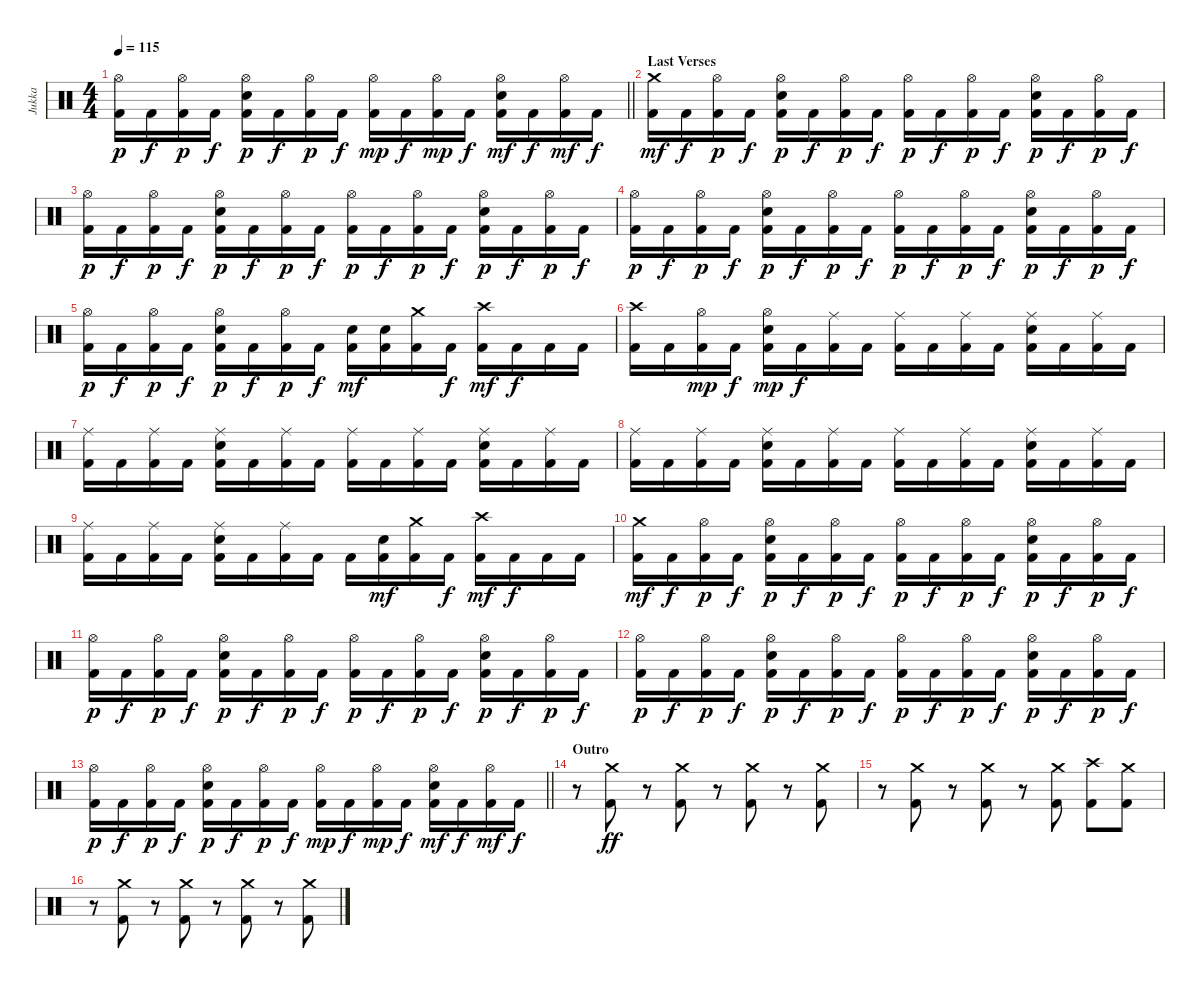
\track ("Jukka" "Jukka") {instrument percussion}
\staff {score}
\articulation defaults
\ts (4 4)
\tempo 115
\clef neutral
\barLineRight lightlight
\ks c
("Hi-Hat (open)" "Kick (hit) 2").16{dy p} "Kick (hit) 2".16{dy f} ("Hi-Hat (open)" "Kick (hit) 2").16{dy p} "Kick (hit) 2".16{dy f} ("Hi-Hat (open)" "Snare (hit) 2" "Kick (hit) 2").16{dy p} "Kick (hit) 2".16{dy f} ("Hi-Hat (open)" "Kick (hit) 2").16{dy p} "Kick (hit) 2".16{dy f} ("Hi-Hat (open)" "Kick (hit) 2").16{dy mp} "Kick (hit) 2".16{dy f} ("Hi-Hat (open)" "Kick (hit) 2").16{dy mp} "Kick (hit) 2".16{dy f} ("Hi-Hat (open)" "Snare (hit) 2" "Kick (hit) 2").16{dy mf} "Kick (hit) 2".16{dy f} ("Hi-Hat (open)" "Kick (hit) 2").16{dy mf} "Kick (hit) 2".16{dy f} |
\section ("" "Last Verses")
("Crash medium (hit)" "Kick (hit) 2").16{dy mf} "Kick (hit) 2".16{dy f} ("Hi-Hat (open)" "Kick (hit) 2").16{dy p} "Kick (hit) 2".16{dy f} ("Hi-Hat (open)" "Snare (hit) 2" "Kick (hit) 2").16{dy p} "Kick (hit) 2".16{dy f} ("Hi-Hat (open)" "Kick (hit) 2").16{dy p} "Kick (hit) 2".16{dy f} ("Hi-Hat (open)" "Kick (hit) 2").16{dy p} "Kick (hit) 2".16{dy f} ("Hi-Hat (open)" "Kick (hit) 2").16{dy p} "Kick (hit) 2".16{dy f} ("Hi-Hat (open)" "Snare (hit) 2" "Kick (hit) 2").16{dy p} "Kick (hit) 2".16{dy f} ("Hi-Hat (open)" "Kick (hit) 2").16{dy p} "Kick (hit) 2".16{dy f} |
("Hi-Hat (open)" "Kick (hit) 2").16{dy p} "Kick (hit) 2".16{dy f} ("Hi-Hat (open)" "Kick (hit) 2").16{dy p} "Kick (hit) 2".16{dy f} ("Hi-Hat (open)" "Snare (hit) 2" "Kick (hit) 2").16{dy p} "Kick (hit) 2".16{dy f} ("Hi-Hat (open)" "Kick (hit) 2").16{dy p} "Kick (hit) 2".16{dy f} ("Hi-Hat (open)" "Kick (hit) 2").16{dy p} "Kick (hit) 2".16{dy f} ("Hi-Hat (open)" "Kick (hit) 2").16{dy p} "Kick (hit) 2".16{dy f} ("Hi-Hat (open)" "Snare (hit) 2" "Kick (hit) 2").16{dy p} "Kick (hit) 2".16{dy f} ("Hi-Hat (open)" "Kick (hit) 2").16{dy p} "Kick (hit) 2".16{dy f} |
("Hi-Hat (open)" "Kick (hit) 2").16{dy p} "Kick (hit) 2".16{dy f} ("Hi-Hat (open)" "Kick (hit) 2").16{dy p} "Kick (hit) 2".16{dy f} ("Hi-Hat (open)" "Snare (hit) 2" "Kick (hit) 2").16{dy p} "Kick (hit) 2".16{dy f} ("Hi-Hat (open)" "Kick (hit) 2").16{dy p} "Kick (hit) 2".16{dy f} ("Hi-Hat (open)" "Kick (hit) 2").16{dy p} "Kick (hit) 2".16{dy f} ("Hi-Hat (open)" "Kick (hit) 2").16{dy p} "Kick (hit) 2".16{dy f} ("Hi-Hat (open)" "Snare (hit) 2" "Kick (hit) 2").16{dy p} "Kick (hit) 2".16{dy f} ("Hi-Hat (open)" "Kick (hit) 2").16{dy p} "Kick (hit) 2".16{dy f} |
("Hi-Hat (open)" "Kick (hit) 2").16{dy p} "Kick (hit) 2".16{dy f} ("Hi-Hat (open)" "Kick (hit) 2").16{dy p} "Kick (hit) 2".16{dy f} ("Hi-Hat (open)" "Snare (hit) 2" "Kick (hit) 2").16{dy p} "Kick (hit) 2".16{dy f} ("Hi-Hat (open)" "Kick (hit) 2").16{dy p} "Kick (hit) 2".16{dy f} ("Snare (hit) 2" "Kick (hit) 2").16{dy mf} ("Snare (hit) 2" "Kick (hit) 2").16 ("Crash medium (hit)" "Kick (hit) 2").16 "Kick (hit) 2".16{dy f} ("Crash high (hit)" "Kick (hit) 2").16{dy mf} "Kick (hit) 2".16{dy f} "Kick (hit) 2".16 "Kick (hit) 2".16 |
("Crash high (hit)" "Kick (hit) 2").16 "Kick (hit) 2".16 ("Hi-Hat (open)" "Kick (hit) 2").16{dy mp} "Kick (hit) 2".16{dy f} ("Hi-Hat (open)" "Snare (hit) 2" "Kick (hit) 2").16{dy mp} "Kick (hit) 2".16{dy f} ("Ride (middle)" "Kick (hit) 2").16 "Kick (hit) 2".16 ("Ride (middle)" "Kick (hit) 2").16 "Kick (hit) 2".16 ("Ride (middle)" "Kick (hit) 2").16 "Kick (hit) 2".16 ("Ride (middle)" "Snare (hit) 2" "Kick (hit) 2").16 "Kick (hit) 2".16 ("Ride (middle)" "Kick (hit) 2").16 "Kick (hit) 2".16 |
("Ride (middle)" "Kick (hit) 2").16 "Kick (hit) 2".16 ("Ride (middle)" "Kick (hit) 2").16 "Kick (hit) 2".16 ("Ride (middle)" "Snare (hit) 2" "Kick (hit) 2").16 "Kick (hit) 2".16 ("Ride (middle)" "Kick (hit) 2").16 "Kick (hit) 2".16 ("Ride (middle)" "Kick (hit) 2").16 "Kick (hit) 2".16 ("Ride (middle)" "Kick (hit) 2").16 "Kick (hit) 2".16 ("Ride (middle)" "Snare (hit) 2" "Kick (hit) 2").16 "Kick (hit) 2".16 ("Ride (middle)" "Kick (hit) 2").16 "Kick (hit) 2".16 |
("Ride (middle)" "Kick (hit) 2").16 "Kick (hit) 2".16 ("Ride (middle)" "Kick (hit) 2").16 "Kick (hit) 2".16 ("Ride (middle)" "Snare (hit) 2" "Kick (hit) 2").16 "Kick (hit) 2".16 ("Ride (middle)" "Kick (hit) 2").16 "Kick (hit) 2".16 ("Ride (middle)" "Kick (hit) 2").16 "Kick (hit) 2".16 ("Ride (middle)" "Kick (hit) 2").16 "Kick (hit) 2".16 ("Ride (middle)" "Snare (hit) 2" "Kick (hit) 2").16 "Kick (hit) 2".16 ("Ride (middle)" "Kick (hit) 2").16 "Kick (hit) 2".16 |
("Ride (middle)" "Kick (hit) 2").16 "Kick (hit) 2".16 ("Ride (middle)" "Kick (hit) 2").16 "Kick (hit) 2".16 ("Ride (middle)" "Snare (hit) 2" "Kick (hit) 2").16 "Kick (hit) 2".16 ("Ride (middle)" "Kick (hit) 2").16 "Kick (hit) 2".16 "Kick (hit) 2".16 ("Snare (hit) 2" "Kick (hit) 2").16{dy mf} ("Crash medium (hit)" "Kick (hit) 2").16 "Kick (hit) 2".16{dy f} ("Crash high (hit)" "Kick (hit) 2").16{dy mf} "Kick (hit) 2".16{dy f} "Kick (hit) 2".16 "Kick (hit) 2".16 |
("Crash medium (hit)" "Kick (hit) 2").16{dy mf} "Kick (hit) 2".16{dy f} ("Hi-Hat (open)" "Kick (hit) 2").16{dy p} "Kick (hit) 2".16{dy f} ("Hi-Hat (open)" "Snare (hit) 2" "Kick (hit) 2").16{dy p} "Kick (hit) 2".16{dy f} ("Hi-Hat (open)" "Kick (hit) 2").16{dy p} "Kick (hit) 2".16{dy f} ("Hi-Hat (open)" "Kick (hit) 2").16{dy p} "Kick (hit) 2".16{dy f} ("Hi-Hat (open)" "Kick (hit) 2").16{dy p} "Kick (hit) 2".16{dy f} ("Hi-Hat (open)" "Snare (hit) 2" "Kick (hit) 2").16{dy p} "Kick (hit) 2".16{dy f} ("Hi-Hat (open)" "Kick (hit) 2").16{dy p} "Kick (hit) 2".16{dy f} |
("Hi-Hat (open)" "Kick (hit) 2").16{dy p} "Kick (hit) 2".16{dy f} ("Hi-Hat (open)" "Kick (hit) 2").16{dy p} "Kick (hit) 2".16{dy f} ("Hi-Hat (open)" "Snare (hit) 2" "Kick (hit) 2").16{dy p} "Kick (hit) 2".16{dy f} ("Hi-Hat (open)" "Kick (hit) 2").16{dy p} "Kick (hit) 2".16{dy f} ("Hi-Hat (open)" "Kick (hit) 2").16{dy p} "Kick (hit) 2".16{dy f} ("Hi-Hat (open)" "Kick (hit) 2").16{dy p} "Kick (hit) 2".16{dy f} ("Hi-Hat (open)" "Snare (hit) 2" "Kick (hit) 2").16{dy p} "Kick (hit) 2".16{dy f} ("Hi-Hat (open)" "Kick (hit) 2").16{dy p} "Kick (hit) 2".16{dy f} |
("Hi-Hat (open)" "Kick (hit) 2").16{dy p} "Kick (hit) 2".16{dy f} ("Hi-Hat (open)" "Kick (hit) 2").16{dy p} "Kick (hit) 2".16{dy f} ("Hi-Hat (open)" "Snare (hit) 2" "Kick (hit) 2").16{dy p} "Kick (hit) 2".16{dy f} ("Hi-Hat (open)" "Kick (hit) 2").16{dy p} "Kick (hit) 2".16{dy f} ("Hi-Hat (open)" "Kick (hit) 2").16{dy p} "Kick (hit) 2".16{dy f} ("Hi-Hat (open)" "Kick (hit) 2").16{dy p} "Kick (hit) 2".16{dy f} ("Hi-Hat (open)" "Snare (hit) 2" "Kick (hit) 2").16{dy p} "Kick (hit) 2".16{dy f} ("Hi-Hat (open)" "Kick (hit) 2").16{dy p} "Kick (hit) 2".16{dy f} |
\barLineRight lightlight
("Hi-Hat (open)" "Kick (hit) 2").16{dy p} "Kick (hit) 2".16{dy f} ("Hi-Hat (open)" "Kick (hit) 2").16{dy p} "Kick (hit) 2".16{dy f} ("Hi-Hat (open)" "Snare (hit) 2" "Kick (hit) 2").16{dy p} "Kick (hit) 2".16{dy f} ("Hi-Hat (open)" "Kick (hit) 2").16{dy p} "Kick (hit) 2".16{dy f} ("Hi-Hat (open)" "Kick (hit) 2").16{dy mp} "Kick (hit) 2".16{dy f} ("Hi-Hat (open)" "Kick (hit) 2").16{dy mp} "Kick (hit) 2".16{dy f} ("Hi-Hat (open)" "Snare (hit) 2" "Kick (hit) 2").16{dy mf} "Kick (hit) 2".16{dy f} ("Hi-Hat (open)" "Kick (hit) 2").16{dy mf} "Kick (hit) 2".16{dy f} |
\section ("" "Outro")
r.8 ("Crash medium (hit)" "Kick (hit) 2").8{dy ff} r.8 ("Crash medium (hit)" "Kick (hit) 2").8 r.8 ("Crash medium (hit)" "Kick (hit) 2").8 r.8 ("Crash medium (hit)" "Kick (hit) 2").8 |
r.8 ("Crash medium (hit)" "Kick (hit) 2").8 r.8 ("Crash medium (hit)" "Kick (hit) 2").8 r.8 ("Crash medium (hit)" "Kick (hit) 2").8 ("Crash high (hit)" "Kick (hit) 2").8 ("Crash medium (hit)" "Kick (hit) 2").8 |
r.8 ("Crash medium (hit)" "Kick (hit) 2").8 r.8 ("Crash medium (hit)" "Kick (hit) 2").8 r.8 ("Crash medium (hit)" "Kick (hit) 2").8 r.8 ("Crash medium (hit)" "Kick (hit) 2").8
